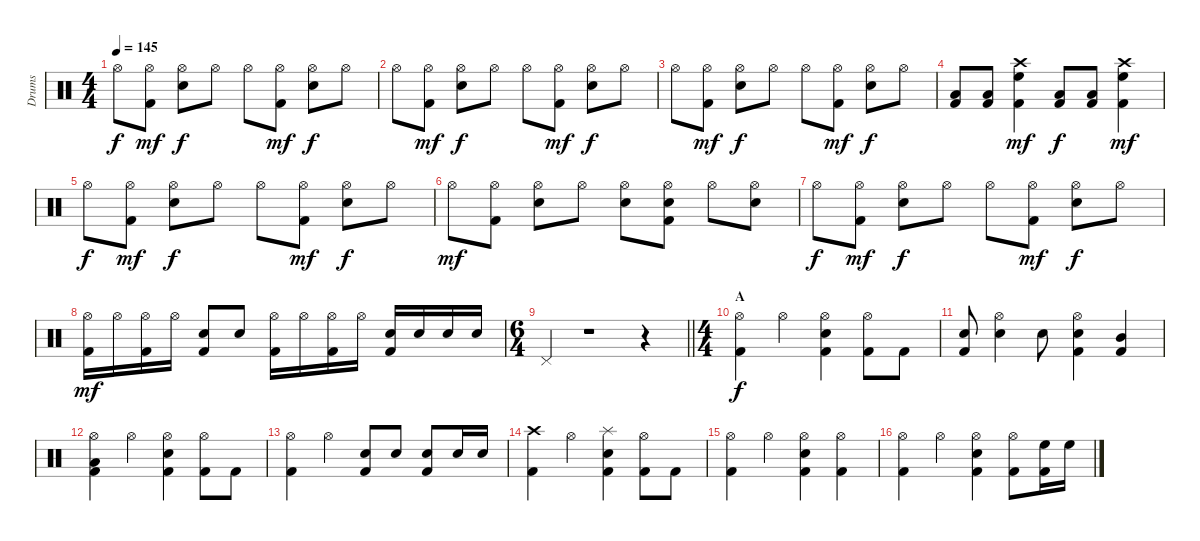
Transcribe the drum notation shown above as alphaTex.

\track ("Drums" "Drums") {instrument percussion}
\staff {score}
\articulation defaults
\ts (4 4)
\tempo 145
\clef neutral
\ks c "Hi-Hat (open)".8{dy f}
("Hi-Hat (open)" "Kick (hit) 2").8{dy mf} ("Snare (hit) 2" "Hi-Hat (open)").8{dy f} "Hi-Hat (open)".8 "Hi-Hat (open)".8 ("Hi-Hat (open)" "Kick (hit) 2").8{dy mf} ("Snare (hit) 2" "Hi-Hat (open)").8{dy f} "Hi-Hat (open)".8 |
"Hi-Hat (open)".8 ("Hi-Hat (open)" "Kick (hit) 2").8{dy mf} ("Snare (hit) 2" "Hi-Hat (open)").8{dy f} "Hi-Hat (open)".8 "Hi-Hat (open)".8 ("Hi-Hat (open)" "Kick (hit) 2").8{dy mf} ("Snare (hit) 2" "Hi-Hat (open)").8{dy f} "Hi-Hat (open)".8 |
"Hi-Hat (open)".8 ("Hi-Hat (open)" "Kick (hit) 2").8{dy mf} ("Snare (hit) 2" "Hi-Hat (open)").8{dy f} "Hi-Hat (open)".8 "Hi-Hat (open)".8 ("Hi-Hat (open)" "Kick (hit) 2").8{dy mf} ("Snare (hit) 2" "Hi-Hat (open)").8{dy f} "Hi-Hat (open)".8 |
("Low Tom (hit)" "Kick (hit) 2").8 ("Low Tom (hit)" "Kick (hit) 2").8 ("High Floor Tom (hit)" "Crash high (hit)" "Kick (hit) 2").4{dy mf} ("Low Tom (hit)" "Kick (hit) 2").8{dy f} ("Low Tom (hit)" "Kick (hit) 2").8 ("High Floor Tom (hit)" "Crash high (hit)" "Kick (hit) 2").4{dy mf} |
"Hi-Hat (open)".8{dy f} ("Hi-Hat (open)" "Kick (hit) 2").8{dy mf} ("Snare (hit) 2" "Hi-Hat (open)").8{dy f} "Hi-Hat (open)".8 "Hi-Hat (open)".8 ("Hi-Hat (open)" "Kick (hit) 2").8{dy mf} ("Snare (hit) 2" "Hi-Hat (open)").8{dy f} "Hi-Hat (open)".8 |
"Hi-Hat (open)".8{dy mf} ("Hi-Hat (open)" "Kick (hit) 2").8 ("Snare (hit) 2" "Hi-Hat (open)").8 "Hi-Hat (open)".8 ("Snare (hit) 2" "Hi-Hat (open)").8 ("Snare (hit) 2" "Hi-Hat (open)" "Kick (hit) 2").8 "Hi-Hat (open)".8 ("Snare (hit) 2" "Hi-Hat (open)").8 |
"Hi-Hat (open)".8{dy f} ("Hi-Hat (open)" "Kick (hit) 2").8{dy mf} ("Snare (hit) 2" "Hi-Hat (open)").8{dy f} "Hi-Hat (open)".8 "Hi-Hat (open)".8 ("Hi-Hat (open)" "Kick (hit) 2").8{dy mf} ("Snare (hit) 2" "Hi-Hat (open)").8{dy f} "Hi-Hat (open)".8 |
("Hi-Hat (open)" "Kick (hit) 2").16{dy mf} "Hi-Hat (open)".16 ("Hi-Hat (open)" "Kick (hit) 2").16 "Hi-Hat (open)".16 ("Snare (hit) 2" "Kick (hit) 2").8 "Snare (hit) 2".8 ("Hi-Hat (open)" "Kick (hit) 2").16 "Hi-Hat (open)".16 ("Hi-Hat (open)" "Kick (hit) 2").16 "Hi-Hat (open)".16 ("Snare (hit) 2" "Kick (hit) 2").16 "Snare (hit) 2".16 "Snare (hit) 2".16 "Snare (hit) 2".16 |
\ts (6 4)
\barLineRight lightlight "Pedal Hi-Hat (hit)".4
r.1 r.4 |
\ts (4 4)
\section ("" "A")
("Hi-Hat (open)" "Kick (hit) 2").4{dy f} "Hi-Hat (open)".4 ("Snare (hit) 2" "Hi-Hat (open)" "Kick (hit) 2").4 ("Hi-Hat (open)" "Kick (hit) 2").8 "Kick (hit) 2".8 |
("Snare (hit) 2" "Kick (hit) 2").8 ("Snare (hit) 2" "Hi-Hat (open)").4 "Snare (hit) 2".8 ("Snare (hit) 2" "Hi-Hat (open)" "Kick (hit) 2").4 ("Mid Tom (hit)" "Kick (hit) 2").4 |
("Low Tom (hit)" "Hi-Hat (open)" "Kick (hit) 2").4 "Hi-Hat (open)".4 ("Snare (hit) 2" "Hi-Hat (open)" "Kick (hit) 2").4 ("Hi-Hat (open)" "Kick (hit) 2").8 "Kick (hit) 2".8 |
("Hi-Hat (open)" "Kick (hit) 2").4 "Hi-Hat (open)".4 ("Snare (hit) 2" "Kick (hit) 2").8 "Snare (hit) 2".8 ("Snare (hit) 2" "Kick (hit) 2").8 "Snare (hit) 2".16 "Snare (hit) 2".16 |
("Crash high (hit)" "Kick (hit) 2").4 "Hi-Hat (open)".4 ("Snare (hit) 2" "Splash (hit)" "Kick (hit) 2").4 ("Hi-Hat (open)" "Kick (hit) 2").8 "Kick (hit) 2".8 |
("Hi-Hat (open)" "Kick (hit) 2").4 "Hi-Hat (open)".4 ("Snare (hit) 2" "Hi-Hat (open)" "Kick (hit) 2").4 ("Hi-Hat (open)" "Kick (hit) 2").4 |
("Hi-Hat (open)" "Kick (hit) 2").4 "Hi-Hat (open)".4 ("Snare (hit) 2" "Hi-Hat (open)" "Kick (hit) 2").4 ("Hi-Hat (open)" "Kick (hit) 2").8 ("High Floor Tom (hit)" "Kick (hit) 2").16 "High Floor Tom (hit)".16
